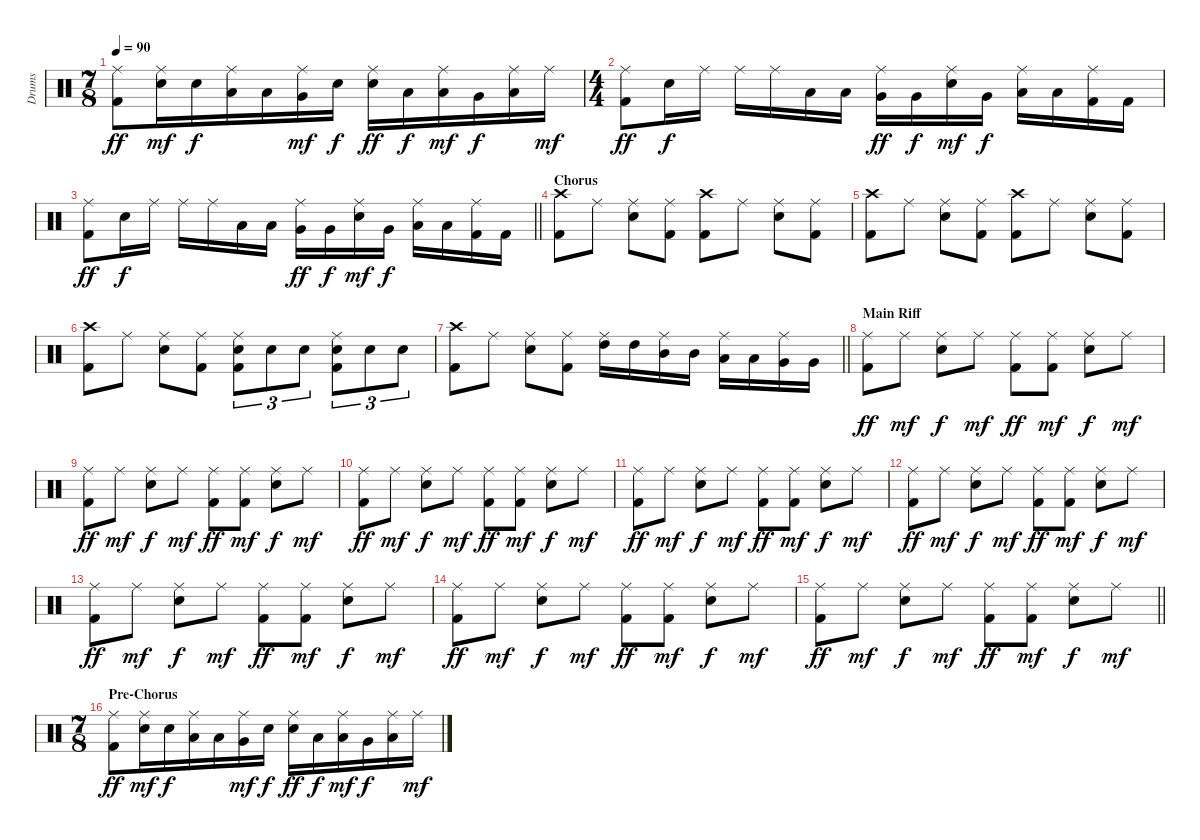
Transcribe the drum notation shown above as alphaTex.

\track ("Drums" "Drums") {instrument percussion}
\staff {score}
\articulation defaults
\ts (7 8)
\tempo 90
\clef neutral
\ks c
("Ride (middle)" "Kick (hit) 2").8{dy ff} ("Ride (middle)" "Electric Snare (hit)").16{dy mf} "Electric Snare (hit)".16{dy f} ("Ride (middle)" "Low Tom (hit)").16 "Low Tom (hit)".16 ("Ride (middle)" "Very Low Tom (hit)").16{dy mf} "Electric Snare (hit)".16{dy f} ("Ride (middle)" "Electric Snare (hit)").16{dy ff} "Low Tom (hit)".16{dy f} ("Ride (middle)" "Low Tom (hit)").16{dy mf} "Very Low Tom (hit)".16{dy f} ("Ride (middle)" "Low Tom (hit)").16 "Ride (middle)".16{dy mf} |
\ts (4 4)
("Ride (middle)" "Kick (hit) 2").8{dy ff} "Electric Snare (hit)".16{dy f} "Ride (middle)".16 "Ride (middle)".16 "Ride (middle)".16 "Low Tom (hit)".16 "Low Tom (hit)".16 ("Ride (middle)" "Very Low Tom (hit)").16{dy ff} "Very Low Tom (hit)".16{dy f} ("Ride (middle)" "Electric Snare (hit)").16{dy mf} "Very Low Tom (hit)".16{dy f} ("Ride (middle)" "Low Floor Tom (hit)").16 "Low Floor Tom (hit)".16 ("Ride (middle)" "Kick (hit) 2").16 "Kick (hit) 2".16 |
\barLineRight lightlight
("Ride (middle)" "Kick (hit) 2").8{dy ff} "Electric Snare (hit)".16{dy f} "Ride (middle)".16 "Ride (middle)".16 "Ride (middle)".16 "Low Tom (hit)".16 "Low Tom (hit)".16 ("Ride (middle)" "Very Low Tom (hit)").16{dy ff} "Very Low Tom (hit)".16{dy f} ("Ride (middle)" "Electric Snare (hit)").16{dy mf} "Very Low Tom (hit)".16{dy f} ("Ride (middle)" "Low Floor Tom (hit)").16 "Low Floor Tom (hit)".16 ("Ride (middle)" "Kick (hit) 2").16 "Kick (hit) 2".16 |
\section ("" "Chorus")
("Crash high (hit)" "Kick (hit) 2").8 "Ride (middle)".8 ("Ride (middle)" "Electric Snare (hit)").8 ("Ride (middle)" "Kick (hit) 2").8 ("Crash high (hit)" "Kick (hit) 2").8 "Ride (middle)".8 ("Ride (middle)" "Electric Snare (hit)").8 ("Ride (middle)" "Kick (hit) 2").8 |
("Crash high (hit)" "Kick (hit) 2").8 "Ride (middle)".8 ("Ride (middle)" "Electric Snare (hit)").8 ("Ride (middle)" "Kick (hit) 2").8 ("Crash high (hit)" "Kick (hit) 2").8 "Ride (middle)".8 ("Ride (middle)" "Electric Snare (hit)").8 ("Ride (middle)" "Kick (hit) 2").8 |
("Crash high (hit)" "Kick (hit) 2").8 "Ride (middle)".8 ("Ride (middle)" "Electric Snare (hit)").8 ("Ride (middle)" "Kick (hit) 2").8 ("Ride (middle)" "Electric Snare (hit)" "Kick (hit) 2").8{tu (3 2)} "Electric Snare (hit)".8{tu (3 2)} "Electric Snare (hit)".8{tu (3 2)} ("Ride (middle)" "Electric Snare (hit)" "Kick (hit) 2").8{tu (3 2)} "Electric Snare (hit)".8{tu (3 2)} "Electric Snare (hit)".8{tu (3 2)} |
\barLineRight lightlight
("Crash high (hit)" "Kick (hit) 2").8 "Ride (middle)".8 ("Ride (middle)" "Electric Snare (hit)").8 ("Ride (middle)" "Kick (hit) 2").8 ("Ride (middle)" "High Tom (hit)").16 "High Tom (hit)".16 ("Ride (middle)" "Mid Tom (hit)").16 "Mid Tom (hit)".16 ("Ride (middle)" "Low Tom (hit)").16 "Low Tom (hit)".16 ("Ride (middle)" "Very Low Tom (hit)").16 "Very Low Tom (hit)".16 |
\section ("" "Main Riff")
("Ride (middle)" "Kick (hit) 2").8{dy ff} "Ride (middle)".8{dy mf} ("Ride (middle)" "Electric Snare (hit)").8{dy f} "Ride (middle)".8{dy mf} ("Ride (middle)" "Kick (hit) 2").8{dy ff} ("Ride (middle)" "Kick (hit) 2").8{dy mf} ("Ride (middle)" "Electric Snare (hit)").8{dy f} "Ride (middle)".8{dy mf} |
("Ride (middle)" "Kick (hit) 2").8{dy ff} "Ride (middle)".8{dy mf} ("Ride (middle)" "Electric Snare (hit)").8{dy f} "Ride (middle)".8{dy mf} ("Ride (middle)" "Kick (hit) 2").8{dy ff} ("Ride (middle)" "Kick (hit) 2").8{dy mf} ("Ride (middle)" "Electric Snare (hit)").8{dy f} "Ride (middle)".8{dy mf} |
("Ride (middle)" "Kick (hit) 2").8{dy ff} "Ride (middle)".8{dy mf} ("Ride (middle)" "Electric Snare (hit)").8{dy f} "Ride (middle)".8{dy mf} ("Ride (middle)" "Kick (hit) 2").8{dy ff} ("Ride (middle)" "Kick (hit) 2").8{dy mf} ("Ride (middle)" "Electric Snare (hit)").8{dy f} "Ride (middle)".8{dy mf} |
("Ride (middle)" "Kick (hit) 2").8{dy ff} "Ride (middle)".8{dy mf} ("Ride (middle)" "Electric Snare (hit)").8{dy f} "Ride (middle)".8{dy mf} ("Ride (middle)" "Kick (hit) 2").8{dy ff} ("Ride (middle)" "Kick (hit) 2").8{dy mf} ("Ride (middle)" "Electric Snare (hit)").8{dy f} "Ride (middle)".8{dy mf} |
("Ride (middle)" "Kick (hit) 2").8{dy ff} "Ride (middle)".8{dy mf} ("Ride (middle)" "Electric Snare (hit)").8{dy f} "Ride (middle)".8{dy mf} ("Ride (middle)" "Kick (hit) 2").8{dy ff} ("Ride (middle)" "Kick (hit) 2").8{dy mf} ("Ride (middle)" "Electric Snare (hit)").8{dy f} "Ride (middle)".8{dy mf} |
("Ride (middle)" "Kick (hit) 2").8{dy ff} "Ride (middle)".8{dy mf} ("Ride (middle)" "Electric Snare (hit)").8{dy f} "Ride (middle)".8{dy mf} ("Ride (middle)" "Kick (hit) 2").8{dy ff} ("Ride (middle)" "Kick (hit) 2").8{dy mf} ("Ride (middle)" "Electric Snare (hit)").8{dy f} "Ride (middle)".8{dy mf} |
("Ride (middle)" "Kick (hit) 2").8{dy ff} "Ride (middle)".8{dy mf} ("Ride (middle)" "Electric Snare (hit)").8{dy f} "Ride (middle)".8{dy mf} ("Ride (middle)" "Kick (hit) 2").8{dy ff} ("Ride (middle)" "Kick (hit) 2").8{dy mf} ("Ride (middle)" "Electric Snare (hit)").8{dy f} "Ride (middle)".8{dy mf} |
\barLineRight lightlight
("Ride (middle)" "Kick (hit) 2").8{dy ff} "Ride (middle)".8{dy mf} ("Ride (middle)" "Electric Snare (hit)").8{dy f} "Ride (middle)".8{dy mf} ("Ride (middle)" "Kick (hit) 2").8{dy ff} ("Ride (middle)" "Kick (hit) 2").8{dy mf} ("Ride (middle)" "Electric Snare (hit)").8{dy f} "Ride (middle)".8{dy mf} |
\ts (7 8)
\section ("" "Pre-Chorus")
("Ride (middle)" "Kick (hit) 2").8{dy ff} ("Ride (middle)" "Electric Snare (hit)").16{dy mf} "Electric Snare (hit)".16{dy f} ("Ride (middle)" "Low Tom (hit)").16 "Low Tom (hit)".16 ("Ride (middle)" "Very Low Tom (hit)").16{dy mf} "Electric Snare (hit)".16{dy f} ("Ride (middle)" "Electric Snare (hit)").16{dy ff} "Low Tom (hit)".16{dy f} ("Ride (middle)" "Low Tom (hit)").16{dy mf} "Very Low Tom (hit)".16{dy f} ("Ride (middle)" "Low Tom (hit)").16 "Ride (middle)".16{dy mf}
